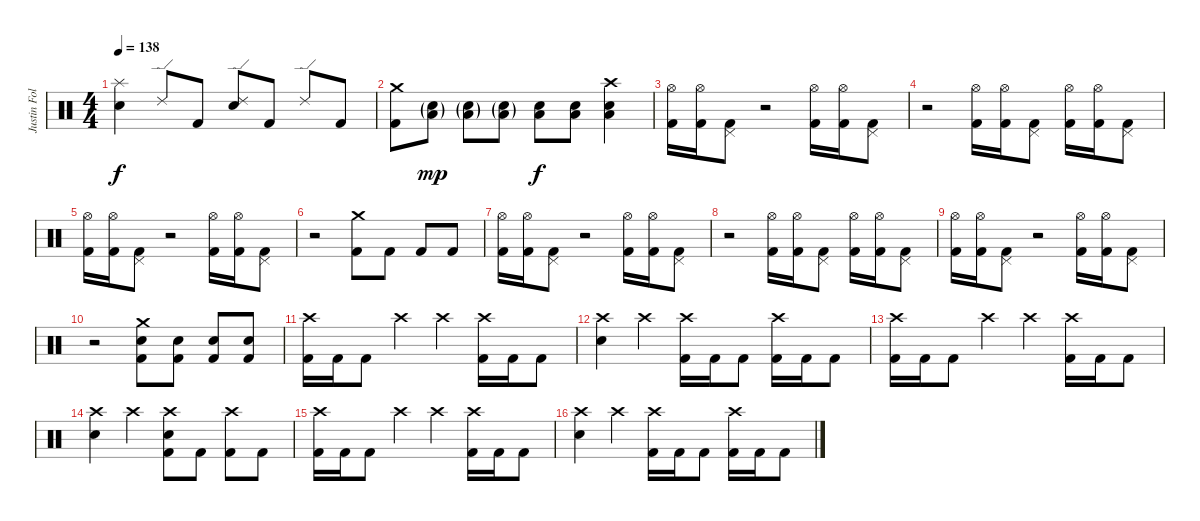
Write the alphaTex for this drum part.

\track ("Justin Foley" "Justin Fol") {instrument percussion}
\staff {score}
\articulation defaults
\ts (4 4)
\tempo 138
\clef neutral
\ks c
("Splash (hit)" "Electric Snare (hit)").4{dy f} "Ride (edge) 2".8 "Kick (hit) 2".8 ("Ride (edge) 2" "Electric Snare (hit)").8 "Kick (hit) 2".8 "Ride (edge) 2".8 "Kick (hit) 2".8 |
("Crash medium (hit)" "Kick (hit) 2").8 ("Electric Snare (hit)"{g} "Low Floor Tom (hit)"{g}).8{dy mp} ("Electric Snare (hit)"{g} "Low Floor Tom (hit)"{g}).8 ("Electric Snare (hit)"{g} "Low Floor Tom (hit)"{g}).8 ("Electric Snare (hit)" "Low Floor Tom (hit)").8{dy f} ("Electric Snare (hit)" "Low Floor Tom (hit)").8 ("Crash high (hit)" "Electric Snare (hit)" "Low Floor Tom (hit)").4 |
("Hi-Hat (open)" "Kick (hit) 2").16 ("Hi-Hat (open)" "Kick (hit) 2").16 ("Pedal Hi-Hat (hit)" "Kick (hit) 2").8 r.2 ("Hi-Hat (open)" "Kick (hit) 2").16 ("Hi-Hat (open)" "Kick (hit) 2").16 ("Pedal Hi-Hat (hit)" "Kick (hit) 2").8 |
r.2 ("Hi-Hat (open)" "Kick (hit) 2").16 ("Hi-Hat (open)" "Kick (hit) 2").16 ("Pedal Hi-Hat (hit)" "Kick (hit) 2").8 ("Hi-Hat (open)" "Kick (hit) 2").16 ("Hi-Hat (open)" "Kick (hit) 2").16 ("Pedal Hi-Hat (hit)" "Kick (hit) 2").8 |
("Hi-Hat (open)" "Kick (hit) 2").16 ("Hi-Hat (open)" "Kick (hit) 2").16 ("Pedal Hi-Hat (hit)" "Kick (hit) 2").8 r.2 ("Hi-Hat (open)" "Kick (hit) 2").16 ("Hi-Hat (open)" "Kick (hit) 2").16 ("Pedal Hi-Hat (hit)" "Kick (hit) 2").8 |
r.2 ("Crash medium (hit)" "Kick (hit) 2").8 "Kick (hit) 2".8 "Kick (hit) 2".8 "Kick (hit) 2".8 |
("Hi-Hat (open)" "Kick (hit) 2").16 ("Hi-Hat (open)" "Kick (hit) 2").16 ("Pedal Hi-Hat (hit)" "Kick (hit) 2").8 r.2 ("Hi-Hat (open)" "Kick (hit) 2").16 ("Hi-Hat (open)" "Kick (hit) 2").16 ("Pedal Hi-Hat (hit)" "Kick (hit) 2").8 |
r.2 ("Hi-Hat (open)" "Kick (hit) 2").16 ("Hi-Hat (open)" "Kick (hit) 2").16 ("Pedal Hi-Hat (hit)" "Kick (hit) 2").8 ("Hi-Hat (open)" "Kick (hit) 2").16 ("Hi-Hat (open)" "Kick (hit) 2").16 ("Pedal Hi-Hat (hit)" "Kick (hit) 2").8 |
("Hi-Hat (open)" "Kick (hit) 2").16 ("Hi-Hat (open)" "Kick (hit) 2").16 ("Pedal Hi-Hat (hit)" "Kick (hit) 2").8 r.2 ("Hi-Hat (open)" "Kick (hit) 2").16 ("Hi-Hat (open)" "Kick (hit) 2").16 ("Pedal Hi-Hat (hit)" "Kick (hit) 2").8 |
r.2 ("Crash medium (hit)" "Electric Snare (hit)" "Kick (hit) 2").8 ("Electric Snare (hit)" "Kick (hit) 2").8 ("Electric Snare (hit)" "Kick (hit) 2").8 ("Electric Snare (hit)" "Kick (hit) 2").8 |
("Crash high (hit)" "Kick (hit) 2").16 "Kick (hit) 2".16 "Kick (hit) 2".8 "Crash high (hit)".4 "Crash high (hit)".4 ("Crash high (hit)" "Kick (hit) 2").16 "Kick (hit) 2".16 "Kick (hit) 2".8 |
("Crash high (hit)" "Electric Snare (hit)").4 "Crash high (hit)".4 ("Crash high (hit)" "Kick (hit) 2").16 "Kick (hit) 2".16 "Kick (hit) 2".8 ("Crash high (hit)" "Kick (hit) 2").16 "Kick (hit) 2".16 "Kick (hit) 2".8 |
("Crash high (hit)" "Kick (hit) 2").16 "Kick (hit) 2".16 "Kick (hit) 2".8 "Crash high (hit)".4 "Crash high (hit)".4 ("Crash high (hit)" "Kick (hit) 2").16 "Kick (hit) 2".16 "Kick (hit) 2".8 |
("Crash high (hit)" "Electric Snare (hit)").4 "Crash high (hit)".4 ("Crash high (hit)" "Electric Snare (hit)" "Kick (hit) 2").8 "Kick (hit) 2".8 ("Crash high (hit)" "Kick (hit) 2").8 "Kick (hit) 2".8 |
("Crash high (hit)" "Kick (hit) 2").16 "Kick (hit) 2".16 "Kick (hit) 2".8 "Crash high (hit)".4 "Crash high (hit)".4 ("Crash high (hit)" "Kick (hit) 2").16 "Kick (hit) 2".16 "Kick (hit) 2".8 |
("Crash high (hit)" "Electric Snare (hit)").4 "Crash high (hit)".4 ("Crash high (hit)" "Kick (hit) 2").16 "Kick (hit) 2".16 "Kick (hit) 2".8 ("Crash high (hit)" "Kick (hit) 2").16 "Kick (hit) 2".16 "Kick (hit) 2".8
